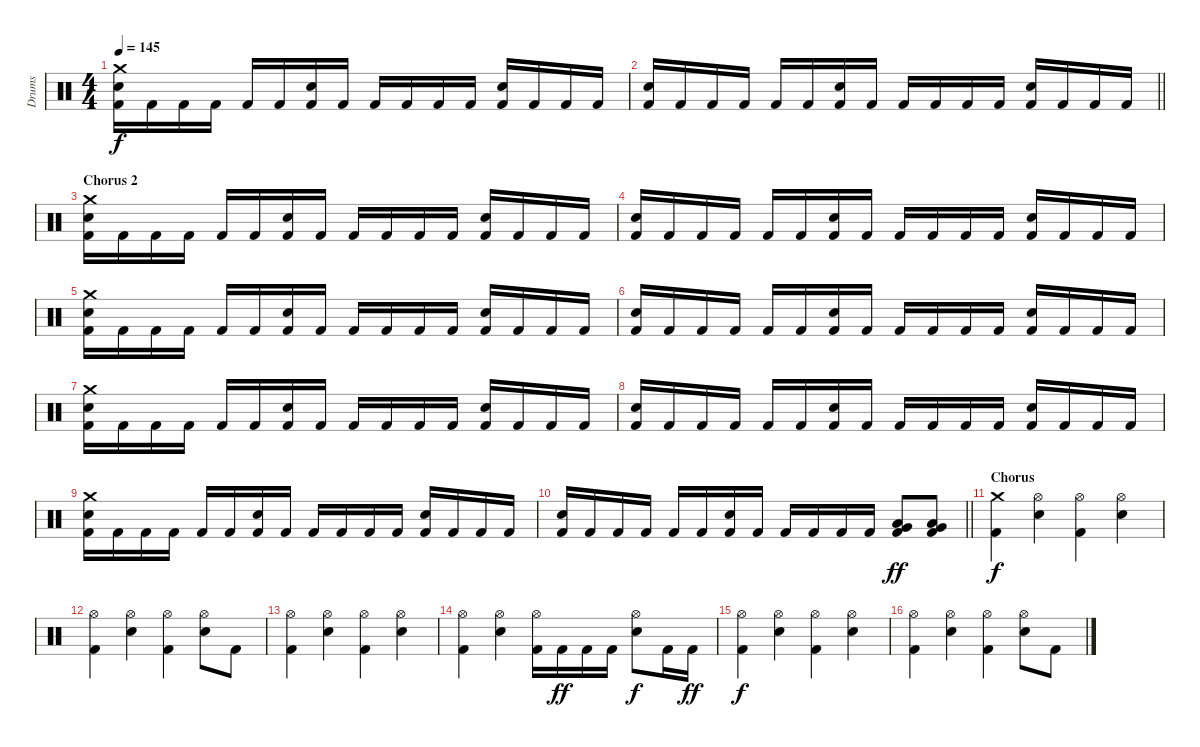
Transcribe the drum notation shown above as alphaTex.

\track ("Drums" "Drums") {instrument percussion}
\staff {score}
\articulation defaults
\ts (4 4)
\tempo 145
\clef neutral
\ks c
("Crash medium (hit)" "Electric Snare (hit)" "Kick (hit) 2").16{dy f} "Kick (hit) 2".16 "Kick (hit) 2".16 "Kick (hit) 2".16 "Kick (hit) 2".16 "Kick (hit) 2".16 ("Electric Snare (hit)" "Kick (hit) 2").16 "Kick (hit) 2".16 "Kick (hit) 2".16 "Kick (hit) 2".16 "Kick (hit) 2".16 "Kick (hit) 2".16 ("Electric Snare (hit)" "Kick (hit) 2").16 "Kick (hit) 2".16 "Kick (hit) 2".16 "Kick (hit) 2".16 |
\barLineRight lightlight
("Electric Snare (hit)" "Kick (hit) 2").16 "Kick (hit) 2".16 "Kick (hit) 2".16 "Kick (hit) 2".16 "Kick (hit) 2".16 "Kick (hit) 2".16 ("Electric Snare (hit)" "Kick (hit) 2").16 "Kick (hit) 2".16 "Kick (hit) 2".16 "Kick (hit) 2".16 "Kick (hit) 2".16 "Kick (hit) 2".16 ("Electric Snare (hit)" "Kick (hit) 2").16 "Kick (hit) 2".16 "Kick (hit) 2".16 "Kick (hit) 2".16 |
\section ("" "Chorus 2")
("Crash medium (hit)" "Electric Snare (hit)" "Kick (hit) 2").16 "Kick (hit) 2".16 "Kick (hit) 2".16 "Kick (hit) 2".16 "Kick (hit) 2".16 "Kick (hit) 2".16 ("Electric Snare (hit)" "Kick (hit) 2").16 "Kick (hit) 2".16 "Kick (hit) 2".16 "Kick (hit) 2".16 "Kick (hit) 2".16 "Kick (hit) 2".16 ("Electric Snare (hit)" "Kick (hit) 2").16 "Kick (hit) 2".16 "Kick (hit) 2".16 "Kick (hit) 2".16 |
("Electric Snare (hit)" "Kick (hit) 2").16 "Kick (hit) 2".16 "Kick (hit) 2".16 "Kick (hit) 2".16 "Kick (hit) 2".16 "Kick (hit) 2".16 ("Electric Snare (hit)" "Kick (hit) 2").16 "Kick (hit) 2".16 "Kick (hit) 2".16 "Kick (hit) 2".16 "Kick (hit) 2".16 "Kick (hit) 2".16 ("Electric Snare (hit)" "Kick (hit) 2").16 "Kick (hit) 2".16 "Kick (hit) 2".16 "Kick (hit) 2".16 |
("Crash medium (hit)" "Electric Snare (hit)" "Kick (hit) 2").16 "Kick (hit) 2".16 "Kick (hit) 2".16 "Kick (hit) 2".16 "Kick (hit) 2".16 "Kick (hit) 2".16 ("Electric Snare (hit)" "Kick (hit) 2").16 "Kick (hit) 2".16 "Kick (hit) 2".16 "Kick (hit) 2".16 "Kick (hit) 2".16 "Kick (hit) 2".16 ("Electric Snare (hit)" "Kick (hit) 2").16 "Kick (hit) 2".16 "Kick (hit) 2".16 "Kick (hit) 2".16 |
("Electric Snare (hit)" "Kick (hit) 2").16 "Kick (hit) 2".16 "Kick (hit) 2".16 "Kick (hit) 2".16 "Kick (hit) 2".16 "Kick (hit) 2".16 ("Electric Snare (hit)" "Kick (hit) 2").16 "Kick (hit) 2".16 "Kick (hit) 2".16 "Kick (hit) 2".16 "Kick (hit) 2".16 "Kick (hit) 2".16 ("Electric Snare (hit)" "Kick (hit) 2").16 "Kick (hit) 2".16 "Kick (hit) 2".16 "Kick (hit) 2".16 |
("Crash medium (hit)" "Electric Snare (hit)" "Kick (hit) 2").16 "Kick (hit) 2".16 "Kick (hit) 2".16 "Kick (hit) 2".16 "Kick (hit) 2".16 "Kick (hit) 2".16 ("Electric Snare (hit)" "Kick (hit) 2").16 "Kick (hit) 2".16 "Kick (hit) 2".16 "Kick (hit) 2".16 "Kick (hit) 2".16 "Kick (hit) 2".16 ("Electric Snare (hit)" "Kick (hit) 2").16 "Kick (hit) 2".16 "Kick (hit) 2".16 "Kick (hit) 2".16 |
("Electric Snare (hit)" "Kick (hit) 2").16 "Kick (hit) 2".16 "Kick (hit) 2".16 "Kick (hit) 2".16 "Kick (hit) 2".16 "Kick (hit) 2".16 ("Electric Snare (hit)" "Kick (hit) 2").16 "Kick (hit) 2".16 "Kick (hit) 2".16 "Kick (hit) 2".16 "Kick (hit) 2".16 "Kick (hit) 2".16 ("Electric Snare (hit)" "Kick (hit) 2").16 "Kick (hit) 2".16 "Kick (hit) 2".16 "Kick (hit) 2".16 |
("Crash medium (hit)" "Electric Snare (hit)" "Kick (hit) 2").16 "Kick (hit) 2".16 "Kick (hit) 2".16 "Kick (hit) 2".16 "Kick (hit) 2".16 "Kick (hit) 2".16 ("Electric Snare (hit)" "Kick (hit) 2").16 "Kick (hit) 2".16 "Kick (hit) 2".16 "Kick (hit) 2".16 "Kick (hit) 2".16 "Kick (hit) 2".16 ("Electric Snare (hit)" "Kick (hit) 2").16 "Kick (hit) 2".16 "Kick (hit) 2".16 "Kick (hit) 2".16 |
\barLineRight lightlight
("Electric Snare (hit)" "Kick (hit) 2").16 "Kick (hit) 2".16 "Kick (hit) 2".16 "Kick (hit) 2".16 "Kick (hit) 2".16 "Kick (hit) 2".16 ("Electric Snare (hit)" "Kick (hit) 2").16 "Kick (hit) 2".16 "Kick (hit) 2".16 "Kick (hit) 2".16 "Kick (hit) 2".16 "Kick (hit) 2".16 ("Low Tom (hit)" "Very Low Tom (hit)" "Kick (hit) 2").8{dy ff} ("Low Tom (hit)" "Very Low Tom (hit)" "Kick (hit) 2").8 |
\section ("" "Chorus")
("Crash medium (hit)" "Kick (hit) 2").4{dy f} ("Hi-Hat (open)" "Electric Snare (hit)").4 ("Hi-Hat (open)" "Kick (hit) 2").4 ("Hi-Hat (open)" "Electric Snare (hit)").4 |
("Hi-Hat (open)" "Kick (hit) 2").4 ("Hi-Hat (open)" "Electric Snare (hit)").4 ("Hi-Hat (open)" "Kick (hit) 2").4 ("Hi-Hat (open)" "Electric Snare (hit)").8 "Kick (hit) 2".8 |
("Hi-Hat (open)" "Kick (hit) 2").4 ("Hi-Hat (open)" "Electric Snare (hit)").4 ("Hi-Hat (open)" "Kick (hit) 2").4 ("Hi-Hat (open)" "Electric Snare (hit)").4 |
("Hi-Hat (open)" "Kick (hit) 2").4 ("Hi-Hat (open)" "Electric Snare (hit)").4 ("Hi-Hat (open)" "Kick (hit) 2").16 "Kick (hit) 2".16{dy ff} "Kick (hit) 2".16 "Kick (hit) 2".16 ("Hi-Hat (open)" "Electric Snare (hit)").8{dy f} "Kick (hit) 2".16 "Kick (hit) 2".16{dy ff} |
("Hi-Hat (open)" "Kick (hit) 2").4{dy f} ("Hi-Hat (open)" "Electric Snare (hit)").4 ("Hi-Hat (open)" "Kick (hit) 2").4 ("Hi-Hat (open)" "Electric Snare (hit)").4 |
("Hi-Hat (open)" "Kick (hit) 2").4 ("Hi-Hat (open)" "Electric Snare (hit)").4 ("Hi-Hat (open)" "Kick (hit) 2").4 ("Hi-Hat (open)" "Electric Snare (hit)").8 "Kick (hit) 2".8
